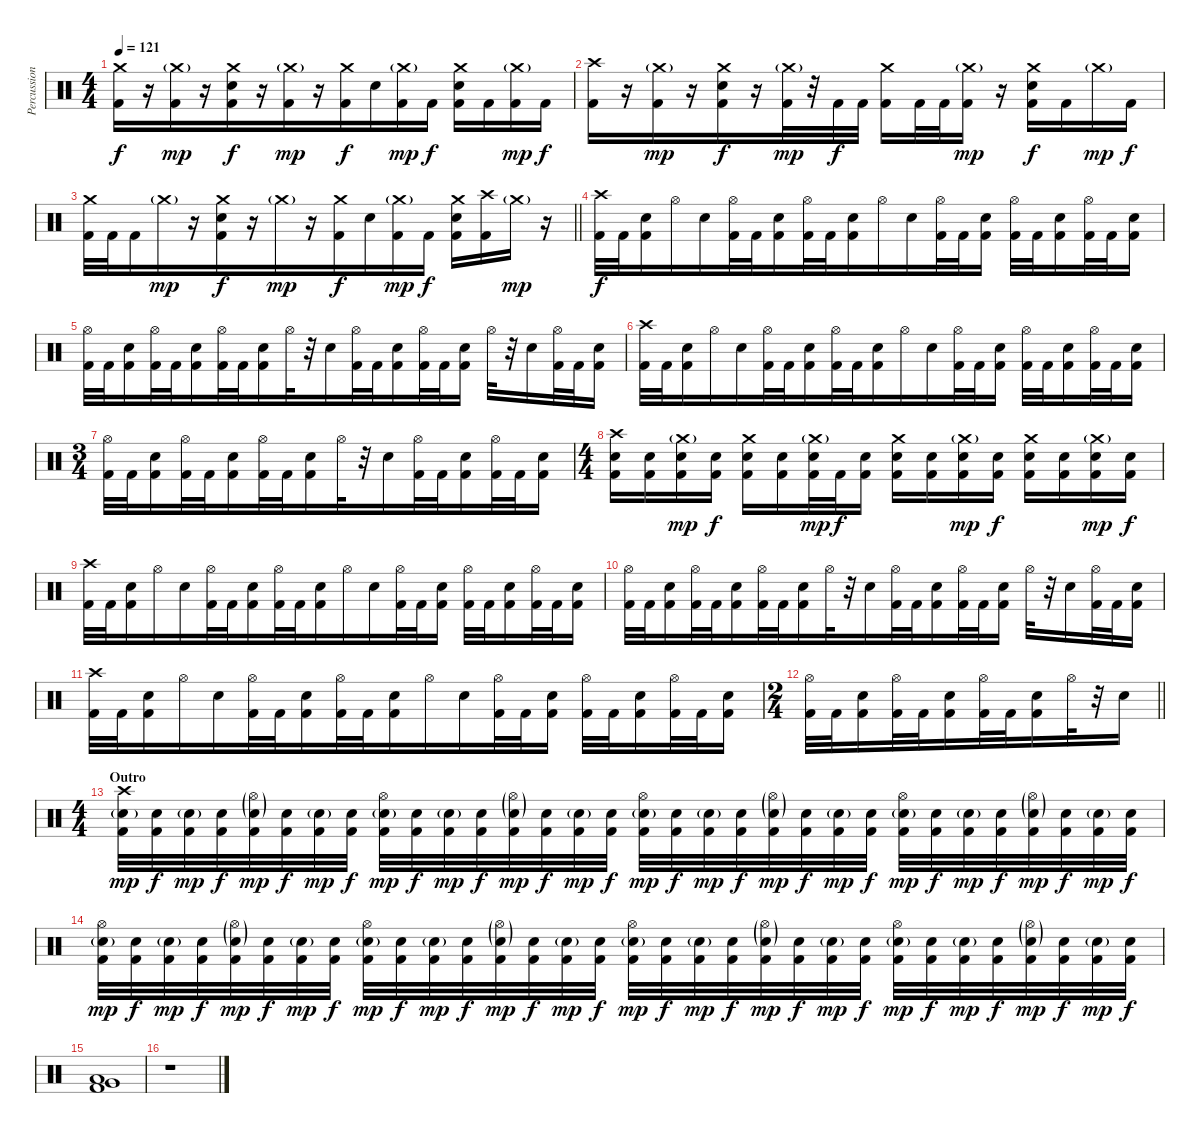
\track ("Percussion" "Percussion") {instrument percussion}
\staff {score}
\articulation defaults
\ts (4 4)
\tempo 121
\clef neutral
\ks c
("Crash medium (hit)" "Kick (hit) 2").16{dy f} r.16 ("Crash medium (hit)"{g} "Kick (hit) 2").16{dy mp beam merge} r.16{beam merge} ("Crash medium (hit)" "Electric Snare (hit)" "Kick (hit) 2").16{dy f beam merge} r.16{beam merge} ("Crash medium (hit)"{g} "Kick (hit) 2").16{dy mp beam merge} r.16 ("Crash medium (hit)" "Kick (hit) 2").16{dy f} "Electric Snare (hit)".16{beam merge} ("Crash medium (hit)"{g} "Kick (hit) 2").16{dy mp} "Kick (hit) 2".16{dy f} ("Crash medium (hit)" "Electric Snare (hit)" "Kick (hit) 2").16 "Kick (hit) 2".16 ("Crash medium (hit)"{g} "Kick (hit) 2").16{dy mp beam merge} "Kick (hit) 2".16{dy f} |
("Crash high (hit)" "Kick (hit) 2").16 r.16 ("Crash medium (hit)"{g} "Kick (hit) 2").16{dy mp beam merge} r.16{beam merge} ("Crash medium (hit)" "Electric Snare (hit)" "Kick (hit) 2").16{dy f beam merge} r.16{beam merge} ("Crash medium (hit)"{g} "Kick (hit) 2").32{dy mp beam merge} r.32{beam merge} "Kick (hit) 2".32{dy f} "Kick (hit) 2".32 ("Crash medium (hit)" "Kick (hit) 2").16 "Kick (hit) 2".32 "Kick (hit) 2".32{beam merge} ("Crash medium (hit)"{g} "Kick (hit) 2").16{dy mp} r.16 ("Crash medium (hit)" "Electric Snare (hit)" "Kick (hit) 2").16{dy f} "Kick (hit) 2".16 "Crash medium (hit)"{g}.16{dy mp beam merge} "Kick (hit) 2".16{dy f} |
\barLineRight lightlight
("Crash medium (hit)" "Kick (hit) 2").32 "Kick (hit) 2".32 "Kick (hit) 2".16 "Crash medium (hit)"{g}.16{dy mp beam merge} r.16{beam merge} ("Crash medium (hit)" "Electric Snare (hit)" "Kick (hit) 2").16{dy f beam merge} r.16{beam merge} "Crash medium (hit)"{g}.16{dy mp beam merge} r.16 ("Crash medium (hit)" "Kick (hit) 2").16{dy f} "Electric Snare (hit)".16{beam merge} ("Crash medium (hit)"{g} "Kick (hit) 2").16{dy mp} "Kick (hit) 2".16{dy f} ("Crash medium (hit)" "Electric Snare (hit)" "Kick (hit) 2").16 ("Crash high (hit)" "Kick (hit) 2").16 "Crash medium (hit)"{g}.16{dy mp beam merge} r.16 |
\section ("" "")
("Crash high (hit)" "Kick (hit) 2").32{dy f} "Kick (hit) 2".32 ("Electric Snare (hit)" "Kick (hit) 2").16{beam merge} "Hi-Hat (open)".16{beam merge} "Electric Snare (hit)".16{beam merge} ("Hi-Hat (open)" "Kick (hit) 2").32 "Kick (hit) 2".32 ("Electric Snare (hit)" "Kick (hit) 2").16{beam merge} ("Hi-Hat (open)" "Kick (hit) 2").32 "Kick (hit) 2".32 ("Electric Snare (hit)" "Kick (hit) 2").16{beam merge} "Hi-Hat (open)".16 "Electric Snare (hit)".16 ("Hi-Hat (open)" "Kick (hit) 2").32 "Kick (hit) 2".32 ("Electric Snare (hit)" "Kick (hit) 2").16 ("Hi-Hat (open)" "Kick (hit) 2").32 "Kick (hit) 2".32{beam merge} ("Electric Snare (hit)" "Kick (hit) 2").16 ("Hi-Hat (open)" "Kick (hit) 2").32 "Kick (hit) 2".32 ("Electric Snare (hit)" "Kick (hit) 2").16 |
("Hi-Hat (open)" "Kick (hit) 2").32 "Kick (hit) 2".32 ("Electric Snare (hit)" "Kick (hit) 2").16{beam merge} ("Hi-Hat (open)" "Kick (hit) 2").32 "Kick (hit) 2".32{beam merge} ("Electric Snare (hit)" "Kick (hit) 2").16{beam merge} ("Hi-Hat (open)" "Kick (hit) 2").32 "Kick (hit) 2".32 ("Electric Snare (hit)" "Kick (hit) 2").16{beam merge} "Hi-Hat (open)".32 r.32 "Electric Snare (hit)".16{beam merge} ("Hi-Hat (open)" "Kick (hit) 2").32 "Kick (hit) 2".32 ("Electric Snare (hit)" "Kick (hit) 2").16 ("Hi-Hat (open)" "Kick (hit) 2").32 "Kick (hit) 2".32 ("Electric Snare (hit)" "Kick (hit) 2").16 "Hi-Hat (open)".32 r.32{beam merge} "Electric Snare (hit)".16 ("Hi-Hat (open)" "Kick (hit) 2").32 "Kick (hit) 2".32 ("Electric Snare (hit)" "Kick (hit) 2").16 |
("Crash high (hit)" "Kick (hit) 2").32 "Kick (hit) 2".32 ("Electric Snare (hit)" "Kick (hit) 2").16{beam merge} "Hi-Hat (open)".16{beam merge} "Electric Snare (hit)".16{beam merge} ("Hi-Hat (open)" "Kick (hit) 2").32 "Kick (hit) 2".32 ("Electric Snare (hit)" "Kick (hit) 2").16{beam merge} ("Hi-Hat (open)" "Kick (hit) 2").32 "Kick (hit) 2".32 ("Electric Snare (hit)" "Kick (hit) 2").16{beam merge} "Hi-Hat (open)".16 "Electric Snare (hit)".16 ("Hi-Hat (open)" "Kick (hit) 2").32 "Kick (hit) 2".32 ("Electric Snare (hit)" "Kick (hit) 2").16 ("Hi-Hat (open)" "Kick (hit) 2").32 "Kick (hit) 2".32{beam merge} ("Electric Snare (hit)" "Kick (hit) 2").16 ("Hi-Hat (open)" "Kick (hit) 2").32 "Kick (hit) 2".32 ("Electric Snare (hit)" "Kick (hit) 2").16 |
\ts (3 4)
("Hi-Hat (open)" "Kick (hit) 2").32 "Kick (hit) 2".32 ("Electric Snare (hit)" "Kick (hit) 2").16{beam merge} ("Hi-Hat (open)" "Kick (hit) 2").32 "Kick (hit) 2".32{beam merge} ("Electric Snare (hit)" "Kick (hit) 2").16{beam merge} ("Hi-Hat (open)" "Kick (hit) 2").32 "Kick (hit) 2".32 ("Electric Snare (hit)" "Kick (hit) 2").16{beam merge} "Hi-Hat (open)".32 r.32 "Electric Snare (hit)".16{beam merge} ("Hi-Hat (open)" "Kick (hit) 2").32 "Kick (hit) 2".32 ("Electric Snare (hit)" "Kick (hit) 2").16 ("Hi-Hat (open)" "Kick (hit) 2").32 "Kick (hit) 2".32 ("Electric Snare (hit)" "Kick (hit) 2").16 |
\ts (4 4)
("Crash high (hit)" "Electric Snare (hit)" "Kick (hit) 2").16 ("Electric Snare (hit)" "Kick (hit) 2").16{beam merge} ("Crash medium (hit)"{g} "Electric Snare (hit)" "Kick (hit) 2").16{dy mp beam merge} ("Electric Snare (hit)" "Kick (hit) 2").16{dy f} ("Crash medium (hit)" "Electric Snare (hit)" "Kick (hit) 2").16 ("Electric Snare (hit)" "Kick (hit) 2").16 ("Crash medium (hit)"{g} "Electric Snare (hit)" "Kick (hit) 2").32{dy mp beam merge} "Kick (hit) 2".32{dy f beam merge} ("Electric Snare (hit)" "Kick (hit) 2").16 ("Crash medium (hit)" "Electric Snare (hit)" "Kick (hit) 2").16 ("Electric Snare (hit)" "Kick (hit) 2").16{beam merge} ("Crash medium (hit)"{g} "Electric Snare (hit)" "Kick (hit) 2").16{dy mp beam merge} ("Electric Snare (hit)" "Kick (hit) 2").16{dy f} ("Crash medium (hit)" "Electric Snare (hit)" "Kick (hit) 2").16 ("Electric Snare (hit)" "Kick (hit) 2").16 ("Crash medium (hit)"{g} "Electric Snare (hit)" "Kick (hit) 2").16{dy mp beam merge} ("Electric Snare (hit)" "Kick (hit) 2").16{dy f} |
("Crash high (hit)" "Kick (hit) 2").32 "Kick (hit) 2".32 ("Electric Snare (hit)" "Kick (hit) 2").16{beam merge} "Hi-Hat (open)".16{beam merge} "Electric Snare (hit)".16{beam merge} ("Hi-Hat (open)" "Kick (hit) 2").32 "Kick (hit) 2".32 ("Electric Snare (hit)" "Kick (hit) 2").16{beam merge} ("Hi-Hat (open)" "Kick (hit) 2").32 "Kick (hit) 2".32 ("Electric Snare (hit)" "Kick (hit) 2").16{beam merge} "Hi-Hat (open)".16 "Electric Snare (hit)".16 ("Hi-Hat (open)" "Kick (hit) 2").32 "Kick (hit) 2".32 ("Electric Snare (hit)" "Kick (hit) 2").16 ("Hi-Hat (open)" "Kick (hit) 2").32 "Kick (hit) 2".32{beam merge} ("Electric Snare (hit)" "Kick (hit) 2").16 ("Hi-Hat (open)" "Kick (hit) 2").32 "Kick (hit) 2".32 ("Electric Snare (hit)" "Kick (hit) 2").16 |
("Hi-Hat (open)" "Kick (hit) 2").32 "Kick (hit) 2".32 ("Electric Snare (hit)" "Kick (hit) 2").16{beam merge} ("Hi-Hat (open)" "Kick (hit) 2").32 "Kick (hit) 2".32{beam merge} ("Electric Snare (hit)" "Kick (hit) 2").16{beam merge} ("Hi-Hat (open)" "Kick (hit) 2").32 "Kick (hit) 2".32 ("Electric Snare (hit)" "Kick (hit) 2").16{beam merge} "Hi-Hat (open)".32 r.32 "Electric Snare (hit)".16{beam merge} ("Hi-Hat (open)" "Kick (hit) 2").32 "Kick (hit) 2".32 ("Electric Snare (hit)" "Kick (hit) 2").16 ("Hi-Hat (open)" "Kick (hit) 2").32 "Kick (hit) 2".32 ("Electric Snare (hit)" "Kick (hit) 2").16 "Hi-Hat (open)".32 r.32{beam merge} "Electric Snare (hit)".16 ("Hi-Hat (open)" "Kick (hit) 2").32 "Kick (hit) 2".32 ("Electric Snare (hit)" "Kick (hit) 2").16 |
("Crash high (hit)" "Kick (hit) 2").32 "Kick (hit) 2".32 ("Electric Snare (hit)" "Kick (hit) 2").16{beam merge} "Hi-Hat (open)".16{beam merge} "Electric Snare (hit)".16{beam merge} ("Hi-Hat (open)" "Kick (hit) 2").32 "Kick (hit) 2".32 ("Electric Snare (hit)" "Kick (hit) 2").16{beam merge} ("Hi-Hat (open)" "Kick (hit) 2").32 "Kick (hit) 2".32 ("Electric Snare (hit)" "Kick (hit) 2").16{beam merge} "Hi-Hat (open)".16 "Electric Snare (hit)".16 ("Hi-Hat (open)" "Kick (hit) 2").32 "Kick (hit) 2".32 ("Electric Snare (hit)" "Kick (hit) 2").16 ("Hi-Hat (open)" "Kick (hit) 2").32 "Kick (hit) 2".32{beam merge} ("Electric Snare (hit)" "Kick (hit) 2").16 ("Hi-Hat (open)" "Kick (hit) 2").32 "Kick (hit) 2".32 ("Electric Snare (hit)" "Kick (hit) 2").16 |
\ts (2 4)
\barLineRight lightlight
("Hi-Hat (open)" "Kick (hit) 2").32 "Kick (hit) 2".32 ("Electric Snare (hit)" "Kick (hit) 2").16{beam merge} ("Hi-Hat (open)" "Kick (hit) 2").32 "Kick (hit) 2".32{beam merge} ("Electric Snare (hit)" "Kick (hit) 2").16{beam merge} ("Hi-Hat (open)" "Kick (hit) 2").32 "Kick (hit) 2".32 ("Electric Snare (hit)" "Kick (hit) 2").16{beam merge} "Hi-Hat (open)".32 r.32 "Electric Snare (hit)".16 |
\ts (4 4)
\section ("" "Outro")
("Crash high (hit)" "Electric Snare (hit)"{g} "Kick (hit) 2").32{dy mp} ("Electric Snare (hit)" "Kick (hit) 2").32{dy f} ("Electric Snare (hit)"{g} "Kick (hit) 2").32{dy mp} ("Electric Snare (hit)" "Kick (hit) 2").32{dy f beam merge} ("Hi-Hat (open)"{g} "Electric Snare (hit)"{g} "Kick (hit) 2").32{dy mp beam merge} ("Electric Snare (hit)" "Kick (hit) 2").32{dy f beam merge} ("Electric Snare (hit)"{g} "Kick (hit) 2").32{dy mp} ("Electric Snare (hit)" "Kick (hit) 2").32{dy f} ("Hi-Hat (open)" "Electric Snare (hit)"{g} "Kick (hit) 2").32{dy mp} ("Electric Snare (hit)" "Kick (hit) 2").32{dy f} ("Electric Snare (hit)"{g} "Kick (hit) 2").32{dy mp} ("Electric Snare (hit)" "Kick (hit) 2").32{dy f} ("Hi-Hat (open)"{g} "Electric Snare (hit)"{g} "Kick (hit) 2").32{dy mp} ("Electric Snare (hit)" "Kick (hit) 2").32{dy f beam merge} ("Electric Snare (hit)"{g} "Kick (hit) 2").32{dy mp} ("Electric Snare (hit)" "Kick (hit) 2").32{dy f} ("Hi-Hat (open)" "Electric Snare (hit)"{g} "Kick (hit) 2").32{dy mp} ("Electric Snare (hit)" "Kick (hit) 2").32{dy f} ("Electric Snare (hit)"{g} "Kick (hit) 2").32{dy mp} ("Electric Snare (hit)" "Kick (hit) 2").32{dy f beam merge} ("Hi-Hat (open)"{g} "Electric Snare (hit)"{g} "Kick (hit) 2").32{dy mp beam merge} ("Electric Snare (hit)" "Kick (hit) 2").32{dy f beam merge} ("Electric Snare (hit)"{g} "Kick (hit) 2").32{dy mp beam merge} ("Electric Snare (hit)" "Kick (hit) 2").32{dy f} ("Hi-Hat (open)" "Electric Snare (hit)"{g} "Kick (hit) 2").32{dy mp} ("Electric Snare (hit)" "Kick (hit) 2").32{dy f} ("Electric Snare (hit)"{g} "Kick (hit) 2").32{dy mp beam merge} ("Electric Snare (hit)" "Kick (hit) 2").32{dy f} ("Hi-Hat (open)"{g} "Electric Snare (hit)"{g} "Kick (hit) 2").32{dy mp beam merge} ("Electric Snare (hit)" "Kick (hit) 2").32{dy f beam merge} ("Electric Snare (hit)"{g} "Kick (hit) 2").32{dy mp beam merge} ("Electric Snare (hit)" "Kick (hit) 2").32{dy f} |
("Hi-Hat (open)" "Electric Snare (hit)"{g} "Kick (hit) 2").32{dy mp} ("Electric Snare (hit)" "Kick (hit) 2").32{dy f} ("Electric Snare (hit)"{g} "Kick (hit) 2").32{dy mp} ("Electric Snare (hit)" "Kick (hit) 2").32{dy f beam merge} ("Hi-Hat (open)"{g} "Electric Snare (hit)"{g} "Kick (hit) 2").32{dy mp beam merge} ("Electric Snare (hit)" "Kick (hit) 2").32{dy f beam merge} ("Electric Snare (hit)"{g} "Kick (hit) 2").32{dy mp} ("Electric Snare (hit)" "Kick (hit) 2").32{dy f} ("Hi-Hat (open)" "Electric Snare (hit)"{g} "Kick (hit) 2").32{dy mp} ("Electric Snare (hit)" "Kick (hit) 2").32{dy f} ("Electric Snare (hit)"{g} "Kick (hit) 2").32{dy mp} ("Electric Snare (hit)" "Kick (hit) 2").32{dy f} ("Hi-Hat (open)"{g} "Electric Snare (hit)"{g} "Kick (hit) 2").32{dy mp} ("Electric Snare (hit)" "Kick (hit) 2").32{dy f beam merge} ("Electric Snare (hit)"{g} "Kick (hit) 2").32{dy mp} ("Electric Snare (hit)" "Kick (hit) 2").32{dy f} ("Hi-Hat (open)" "Electric Snare (hit)"{g} "Kick (hit) 2").32{dy mp} ("Electric Snare (hit)" "Kick (hit) 2").32{dy f} ("Electric Snare (hit)"{g} "Kick (hit) 2").32{dy mp} ("Electric Snare (hit)" "Kick (hit) 2").32{dy f beam merge} ("Hi-Hat (open)"{g} "Electric Snare (hit)"{g} "Kick (hit) 2").32{dy mp beam merge} ("Electric Snare (hit)" "Kick (hit) 2").32{dy f beam merge} ("Electric Snare (hit)"{g} "Kick (hit) 2").32{dy mp beam merge} ("Electric Snare (hit)" "Kick (hit) 2").32{dy f} ("Hi-Hat (open)" "Electric Snare (hit)"{g} "Kick (hit) 2").32{dy mp} ("Electric Snare (hit)" "Kick (hit) 2").32{dy f} ("Electric Snare (hit)"{g} "Kick (hit) 2").32{dy mp beam merge} ("Electric Snare (hit)" "Kick (hit) 2").32{dy f} ("Hi-Hat (open)"{g} "Electric Snare (hit)"{g} "Kick (hit) 2").32{dy mp beam merge} ("Electric Snare (hit)" "Kick (hit) 2").32{dy f beam merge} ("Electric Snare (hit)"{g} "Kick (hit) 2").32{dy mp beam merge} ("Electric Snare (hit)" "Kick (hit) 2").32{dy f} |
("Very Low Tom (hit)" "Low Floor Tom (hit)" "Kick (hit) 2").1 |
r.1
